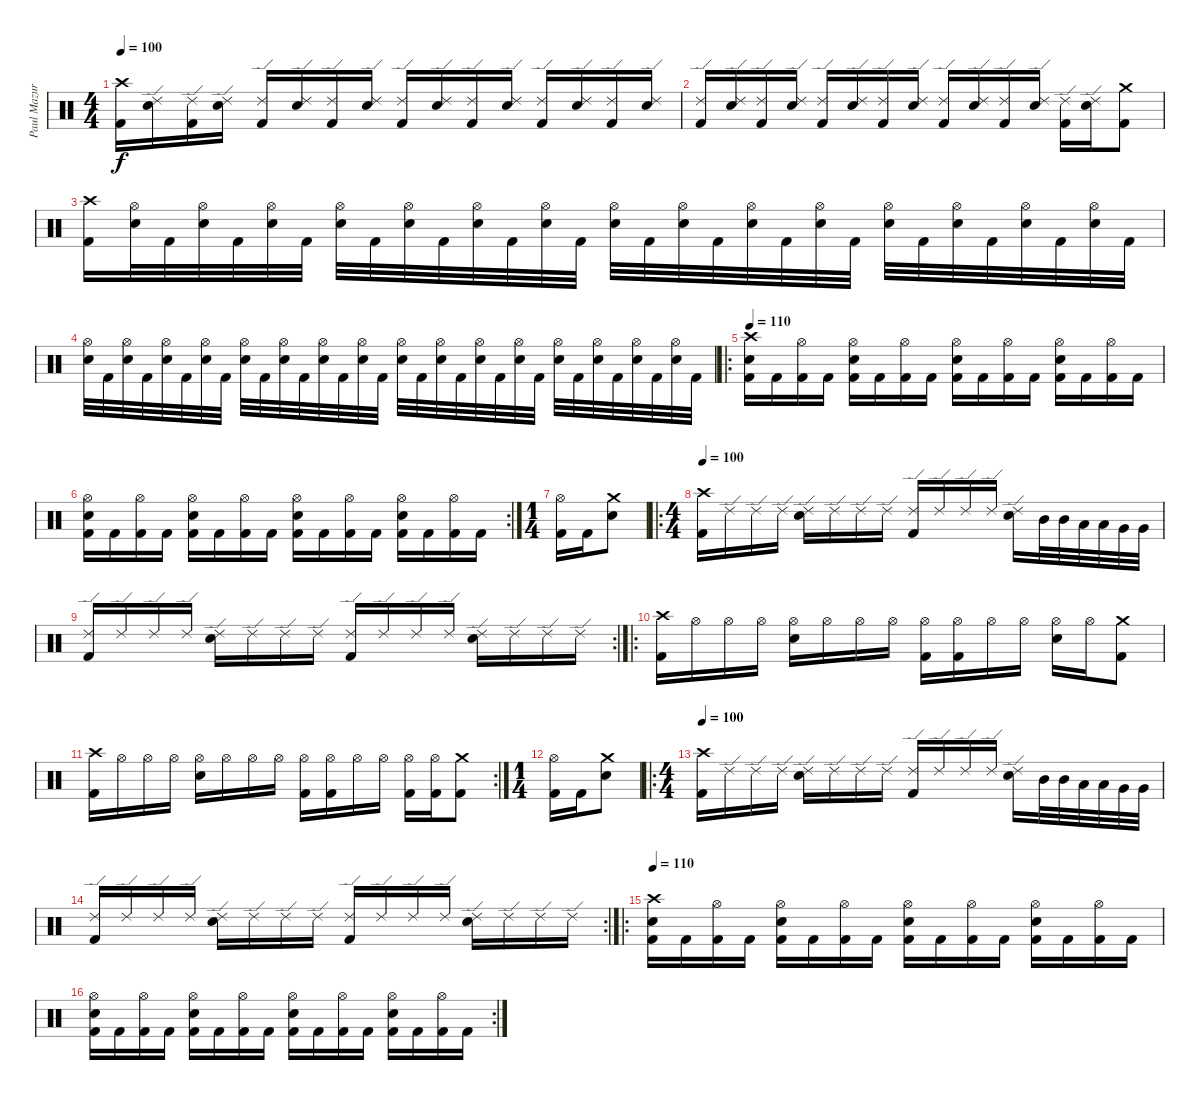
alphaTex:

\track ("Paul Mazurkievich" "Paul Mazur") {instrument percussion}
\staff {score}
\articulation defaults
\ts (4 4)
\tempo 100
\clef neutral
\ks c
("Kick (hit) 2" "Crash high (hit)").16{dy f} ("Electric Snare (hit)" "Ride (edge) 2").16 ("Kick (hit) 2" "Ride (edge) 2").16 ("Electric Snare (hit)" "Ride (edge) 2").16 ("Kick (hit) 2" "Ride (edge) 2").16 ("Electric Snare (hit)" "Ride (edge) 2").16 ("Kick (hit) 2" "Ride (edge) 2").16 ("Electric Snare (hit)" "Ride (edge) 2").16 ("Kick (hit) 2" "Ride (edge) 2").16 ("Electric Snare (hit)" "Ride (edge) 2").16 ("Kick (hit) 2" "Ride (edge) 2").16 ("Electric Snare (hit)" "Ride (edge) 2").16 ("Kick (hit) 2" "Ride (edge) 2").16 ("Electric Snare (hit)" "Ride (edge) 2").16 ("Kick (hit) 2" "Ride (edge) 2").16 ("Electric Snare (hit)" "Ride (edge) 2").16 |
("Kick (hit) 2" "Ride (edge) 2").16 ("Electric Snare (hit)" "Ride (edge) 2").16 ("Kick (hit) 2" "Ride (edge) 2").16 ("Electric Snare (hit)" "Ride (edge) 2").16 ("Kick (hit) 2" "Ride (edge) 2").16 ("Electric Snare (hit)" "Ride (edge) 2").16 ("Kick (hit) 2" "Ride (edge) 2").16 ("Electric Snare (hit)" "Ride (edge) 2").16 ("Kick (hit) 2" "Ride (edge) 2").16 ("Electric Snare (hit)" "Ride (edge) 2").16 ("Kick (hit) 2" "Ride (edge) 2").16 ("Electric Snare (hit)" "Ride (edge) 2").16 ("Kick (hit) 2" "Ride (edge) 2").16 ("Electric Snare (hit)" "Ride (edge) 2").16 ("Kick (hit) 2" "Crash medium (hit)").8 |
("Kick (hit) 2" "Crash high (hit)").16 ("Electric Snare (hit)" "Hi-Hat (open)").32 "Kick (hit) 2".32 ("Electric Snare (hit)" "Hi-Hat (open)").32 "Kick (hit) 2".32 ("Electric Snare (hit)" "Hi-Hat (open)").32 "Kick (hit) 2".32 ("Electric Snare (hit)" "Hi-Hat (open)").32 "Kick (hit) 2".32 ("Electric Snare (hit)" "Hi-Hat (open)").32 "Kick (hit) 2".32 ("Electric Snare (hit)" "Hi-Hat (open)").32 "Kick (hit) 2".32 ("Electric Snare (hit)" "Hi-Hat (open)").32 "Kick (hit) 2".32 ("Electric Snare (hit)" "Hi-Hat (open)").32 "Kick (hit) 2".32 ("Electric Snare (hit)" "Hi-Hat (open)").32 "Kick (hit) 2".32 ("Electric Snare (hit)" "Hi-Hat (open)").32 "Kick (hit) 2".32 ("Electric Snare (hit)" "Hi-Hat (open)").32 "Kick (hit) 2".32 ("Electric Snare (hit)" "Hi-Hat (open)").32 "Kick (hit) 2".32 ("Electric Snare (hit)" "Hi-Hat (open)").32 "Kick (hit) 2".32 ("Electric Snare (hit)" "Hi-Hat (open)").32 "Kick (hit) 2".32 ("Electric Snare (hit)" "Hi-Hat (open)").32 "Kick (hit) 2".32 |
("Electric Snare (hit)" "Hi-Hat (open)").32 "Kick (hit) 2".32 ("Electric Snare (hit)" "Hi-Hat (open)").32 "Kick (hit) 2".32 ("Electric Snare (hit)" "Hi-Hat (open)").32 "Kick (hit) 2".32 ("Electric Snare (hit)" "Hi-Hat (open)").32 "Kick (hit) 2".32 ("Electric Snare (hit)" "Hi-Hat (open)").32 "Kick (hit) 2".32 ("Electric Snare (hit)" "Hi-Hat (open)").32 "Kick (hit) 2".32 ("Electric Snare (hit)" "Hi-Hat (open)").32 "Kick (hit) 2".32 ("Electric Snare (hit)" "Hi-Hat (open)").32 "Kick (hit) 2".32 ("Electric Snare (hit)" "Hi-Hat (open)").32 "Kick (hit) 2".32 ("Electric Snare (hit)" "Hi-Hat (open)").32 "Kick (hit) 2".32 ("Electric Snare (hit)" "Hi-Hat (open)").32 "Kick (hit) 2".32 ("Electric Snare (hit)" "Hi-Hat (open)").32 "Kick (hit) 2".32 ("Electric Snare (hit)" "Hi-Hat (open)").32 "Kick (hit) 2".32 ("Electric Snare (hit)" "Hi-Hat (open)").32 "Kick (hit) 2".32 ("Electric Snare (hit)" "Hi-Hat (open)").32 "Kick (hit) 2".32 ("Electric Snare (hit)" "Hi-Hat (open)").32 "Kick (hit) 2".32 |
\ro
\tempo 110
("Kick (hit) 2" "Crash high (hit)" "Electric Snare (hit)").16 "Kick (hit) 2".16 ("Kick (hit) 2" "Hi-Hat (open)").16 "Kick (hit) 2".16 ("Kick (hit) 2" "Hi-Hat (open)" "Electric Snare (hit)").16 "Kick (hit) 2".16 ("Kick (hit) 2" "Hi-Hat (open)").16 "Kick (hit) 2".16 ("Kick (hit) 2" "Hi-Hat (open)" "Electric Snare (hit)").16 "Kick (hit) 2".16 ("Kick (hit) 2" "Hi-Hat (open)").16 "Kick (hit) 2".16 ("Kick (hit) 2" "Hi-Hat (open)" "Electric Snare (hit)").16 "Kick (hit) 2".16 ("Kick (hit) 2" "Hi-Hat (open)").16 "Kick (hit) 2".16 |
\rc 2
("Kick (hit) 2" "Hi-Hat (open)" "Electric Snare (hit)").16 "Kick (hit) 2".16 ("Kick (hit) 2" "Hi-Hat (open)").16 "Kick (hit) 2".16 ("Kick (hit) 2" "Hi-Hat (open)" "Electric Snare (hit)").16 "Kick (hit) 2".16 ("Kick (hit) 2" "Hi-Hat (open)").16 "Kick (hit) 2".16 ("Kick (hit) 2" "Hi-Hat (open)" "Electric Snare (hit)").16 "Kick (hit) 2".16 ("Kick (hit) 2" "Hi-Hat (open)").16 "Kick (hit) 2".16 ("Kick (hit) 2" "Hi-Hat (open)" "Electric Snare (hit)").16 "Kick (hit) 2".16 ("Kick (hit) 2" "Hi-Hat (open)").16 "Kick (hit) 2".16 |
\ts (1 4)
("Kick (hit) 2" "Hi-Hat (open)").16 "Kick (hit) 2".16 ("Electric Snare (hit)" "Crash medium (hit)").8 |
\ro
\ts (4 4)
\tempo 100
("Crash high (hit)" "Kick (hit) 2").16 "Ride (edge) 2".16 "Ride (edge) 2".16 "Ride (edge) 2".16 ("Ride (edge) 2" "Electric Snare (hit)").16 "Ride (edge) 2".16 "Ride (edge) 2".16 "Ride (edge) 2".16 ("Ride (edge) 2" "Kick (hit) 2").16 "Ride (edge) 2".16 "Ride (edge) 2".16 "Ride (edge) 2".16 ("Ride (edge) 2" "Electric Snare (hit)").16 "Mid Tom (hit)".32 "Mid Tom (hit)".32 "Low Tom (hit)".32 "Low Tom (hit)".32 "Very Low Tom (hit)".32 "Very Low Tom (hit)".32 |
\rc 2
("Ride (edge) 2" "Kick (hit) 2").16 "Ride (edge) 2".16 "Ride (edge) 2".16 "Ride (edge) 2".16 ("Ride (edge) 2" "Electric Snare (hit)").16 "Ride (edge) 2".16 "Ride (edge) 2".16 "Ride (edge) 2".16 ("Ride (edge) 2" "Kick (hit) 2").16 "Ride (edge) 2".16 "Ride (edge) 2".16 "Ride (edge) 2".16 ("Ride (edge) 2" "Electric Snare (hit)").16 "Ride (edge) 2".16 "Ride (edge) 2".16 "Ride (edge) 2".16 |
\ro
("Crash high (hit)" "Kick (hit) 2").16 "Hi-Hat (open)".16 "Hi-Hat (open)".16 "Hi-Hat (open)".16 ("Electric Snare (hit)" "Hi-Hat (open)").16 "Hi-Hat (open)".16 "Hi-Hat (open)".16 "Hi-Hat (open)".16 ("Kick (hit) 2" "Hi-Hat (open)").16 ("Kick (hit) 2" "Hi-Hat (open)").16 "Hi-Hat (open)".16 "Hi-Hat (open)".16 ("Electric Snare (hit)" "Hi-Hat (open)").16 "Hi-Hat (open)".16 ("Kick (hit) 2" "Crash medium (hit)").8 |
\rc 2
("Crash high (hit)" "Kick (hit) 2").16 "Hi-Hat (open)".16 "Hi-Hat (open)".16 "Hi-Hat (open)".16 ("Electric Snare (hit)" "Hi-Hat (open)").16 "Hi-Hat (open)".16 "Hi-Hat (open)".16 "Hi-Hat (open)".16 ("Kick (hit) 2" "Hi-Hat (open)").16 ("Kick (hit) 2" "Hi-Hat (open)").16 "Hi-Hat (open)".16 "Hi-Hat (open)".16 ("Kick (hit) 2" "Hi-Hat (open)").16 ("Kick (hit) 2" "Hi-Hat (open)").16 ("Kick (hit) 2" "Crash medium (hit)").8 |
\ts (1 4)
("Kick (hit) 2" "Hi-Hat (open)").16 "Kick (hit) 2".16 ("Electric Snare (hit)" "Crash medium (hit)").8 |
\ro
\ts (4 4)
\tempo 100
("Crash high (hit)" "Kick (hit) 2").16 "Ride (edge) 2".16 "Ride (edge) 2".16 "Ride (edge) 2".16 ("Ride (edge) 2" "Electric Snare (hit)").16 "Ride (edge) 2".16 "Ride (edge) 2".16 "Ride (edge) 2".16 ("Ride (edge) 2" "Kick (hit) 2").16 "Ride (edge) 2".16 "Ride (edge) 2".16 "Ride (edge) 2".16 ("Ride (edge) 2" "Electric Snare (hit)").16 "Mid Tom (hit)".32 "Mid Tom (hit)".32 "Low Tom (hit)".32 "Low Tom (hit)".32 "Very Low Tom (hit)".32 "Very Low Tom (hit)".32 |
\rc 2
("Ride (edge) 2" "Kick (hit) 2").16 "Ride (edge) 2".16 "Ride (edge) 2".16 "Ride (edge) 2".16 ("Ride (edge) 2" "Electric Snare (hit)").16 "Ride (edge) 2".16 "Ride (edge) 2".16 "Ride (edge) 2".16 ("Ride (edge) 2" "Kick (hit) 2").16 "Ride (edge) 2".16 "Ride (edge) 2".16 "Ride (edge) 2".16 ("Ride (edge) 2" "Electric Snare (hit)").16 "Ride (edge) 2".16 "Ride (edge) 2".16 "Ride (edge) 2".16 |
\ro
\tempo 110
("Kick (hit) 2" "Crash high (hit)" "Electric Snare (hit)").16 "Kick (hit) 2".16 ("Kick (hit) 2" "Hi-Hat (open)").16 "Kick (hit) 2".16 ("Kick (hit) 2" "Hi-Hat (open)" "Electric Snare (hit)").16 "Kick (hit) 2".16 ("Kick (hit) 2" "Hi-Hat (open)").16 "Kick (hit) 2".16 ("Kick (hit) 2" "Hi-Hat (open)" "Electric Snare (hit)").16 "Kick (hit) 2".16 ("Kick (hit) 2" "Hi-Hat (open)").16 "Kick (hit) 2".16 ("Kick (hit) 2" "Hi-Hat (open)" "Electric Snare (hit)").16 "Kick (hit) 2".16 ("Kick (hit) 2" "Hi-Hat (open)").16 "Kick (hit) 2".16 |
\rc 2
("Kick (hit) 2" "Hi-Hat (open)" "Electric Snare (hit)").16 "Kick (hit) 2".16 ("Kick (hit) 2" "Hi-Hat (open)").16 "Kick (hit) 2".16 ("Kick (hit) 2" "Hi-Hat (open)" "Electric Snare (hit)").16 "Kick (hit) 2".16 ("Kick (hit) 2" "Hi-Hat (open)").16 "Kick (hit) 2".16 ("Kick (hit) 2" "Hi-Hat (open)" "Electric Snare (hit)").16 "Kick (hit) 2".16 ("Kick (hit) 2" "Hi-Hat (open)").16 "Kick (hit) 2".16 ("Kick (hit) 2" "Hi-Hat (open)" "Electric Snare (hit)").16 "Kick (hit) 2".16 ("Kick (hit) 2" "Hi-Hat (open)").16 "Kick (hit) 2".16
